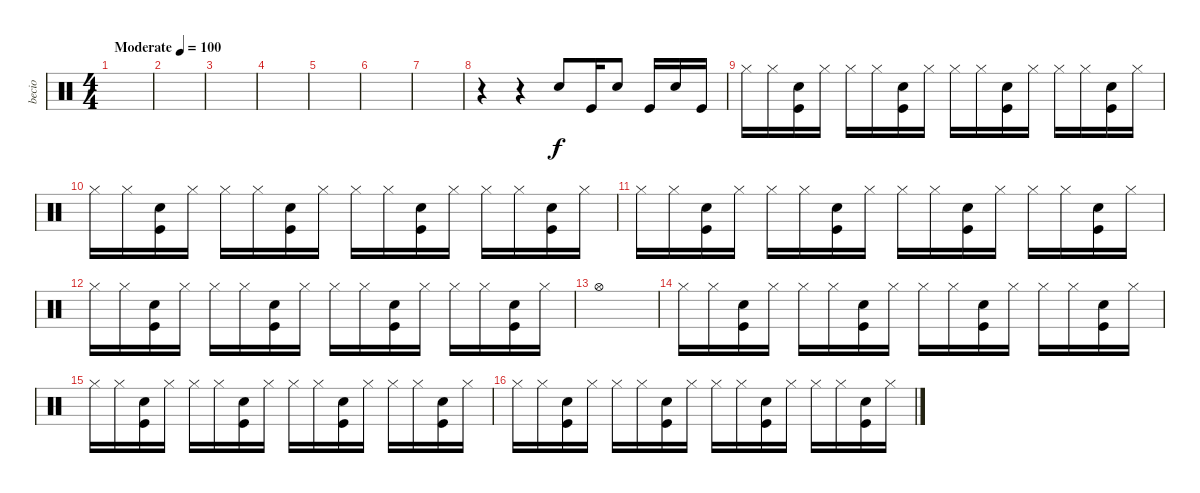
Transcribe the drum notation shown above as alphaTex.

\track ("becio" "becio") {instrument percussion}
\staff {score}
\articulation defaults
\ts (4 4)
\tempo (100 "Moderate")
\clef neutral
\ks c
|
|
|
|
|
|
|
r.4 r.4 "Electric Snare (hit)".8 "Kick (hit)".16 "Electric Snare (hit)".8 "Kick (hit)".16 "Electric Snare (hit)".16 "Kick (hit)".16 |
"Hi-Hat (closed)".16 "Hi-Hat (closed)".16 ("Electric Snare (hit)" "Kick (hit)").16 "Hi-Hat (closed)".16 "Hi-Hat (closed)".16 "Hi-Hat (closed)".16 ("Electric Snare (hit)" "Kick (hit)").16 "Hi-Hat (closed)".16 "Hi-Hat (closed)".16 "Hi-Hat (closed)".16 ("Electric Snare (hit)" "Kick (hit)").16 "Hi-Hat (closed)".16 "Hi-Hat (closed)".16 "Hi-Hat (closed)".16 ("Electric Snare (hit)" "Kick (hit)").16 "Hi-Hat (closed)".16 |
"Hi-Hat (closed)".16 "Hi-Hat (closed)".16 ("Electric Snare (hit)" "Kick (hit)").16 "Hi-Hat (closed)".16 "Hi-Hat (closed)".16 "Hi-Hat (closed)".16 ("Electric Snare (hit)" "Kick (hit)").16 "Hi-Hat (closed)".16 "Hi-Hat (closed)".16 "Hi-Hat (closed)".16 ("Electric Snare (hit)" "Kick (hit)").16 "Hi-Hat (closed)".16 "Hi-Hat (closed)".16 "Hi-Hat (closed)".16 ("Electric Snare (hit)" "Kick (hit)").16 "Hi-Hat (closed)".16 |
"Hi-Hat (closed)".16 "Hi-Hat (closed)".16 ("Electric Snare (hit)" "Kick (hit)").16 "Hi-Hat (closed)".16 "Hi-Hat (closed)".16 "Hi-Hat (closed)".16 ("Electric Snare (hit)" "Kick (hit)").16 "Hi-Hat (closed)".16 "Hi-Hat (closed)".16 "Hi-Hat (closed)".16 ("Electric Snare (hit)" "Kick (hit)").16 "Hi-Hat (closed)".16 "Hi-Hat (closed)".16 "Hi-Hat (closed)".16 ("Electric Snare (hit)" "Kick (hit)").16 "Hi-Hat (closed)".16 |
"Hi-Hat (closed)".16 "Hi-Hat (closed)".16 ("Electric Snare (hit)" "Kick (hit)").16 "Hi-Hat (closed)".16 "Hi-Hat (closed)".16 "Hi-Hat (closed)".16 ("Electric Snare (hit)" "Kick (hit)").16 "Hi-Hat (closed)".16 "Hi-Hat (closed)".16 "Hi-Hat (closed)".16 ("Electric Snare (hit)" "Kick (hit)").16 "Hi-Hat (closed)".16 "Hi-Hat (closed)".16 "Hi-Hat (closed)".16 ("Electric Snare (hit)" "Kick (hit)").16 "Hi-Hat (closed)".16 |
"Hi-Hat (open)".1 |
"Hi-Hat (closed)".16 "Hi-Hat (closed)".16 ("Electric Snare (hit)" "Kick (hit)").16 "Hi-Hat (closed)".16 "Hi-Hat (closed)".16 "Hi-Hat (closed)".16 ("Electric Snare (hit)" "Kick (hit)").16 "Hi-Hat (closed)".16 "Hi-Hat (closed)".16 "Hi-Hat (closed)".16 ("Electric Snare (hit)" "Kick (hit)").16 "Hi-Hat (closed)".16 "Hi-Hat (closed)".16 "Hi-Hat (closed)".16 ("Electric Snare (hit)" "Kick (hit)").16 "Hi-Hat (closed)".16 |
"Hi-Hat (closed)".16 "Hi-Hat (closed)".16 ("Electric Snare (hit)" "Kick (hit)").16 "Hi-Hat (closed)".16 "Hi-Hat (closed)".16 "Hi-Hat (closed)".16 ("Electric Snare (hit)" "Kick (hit)").16 "Hi-Hat (closed)".16 "Hi-Hat (closed)".16 "Hi-Hat (closed)".16 ("Electric Snare (hit)" "Kick (hit)").16 "Hi-Hat (closed)".16 "Hi-Hat (closed)".16 "Hi-Hat (closed)".16 ("Electric Snare (hit)" "Kick (hit)").16 "Hi-Hat (closed)".16 |
"Hi-Hat (closed)".16 "Hi-Hat (closed)".16 ("Electric Snare (hit)" "Kick (hit)").16 "Hi-Hat (closed)".16 "Hi-Hat (closed)".16 "Hi-Hat (closed)".16 ("Electric Snare (hit)" "Kick (hit)").16 "Hi-Hat (closed)".16 "Hi-Hat (closed)".16 "Hi-Hat (closed)".16 ("Electric Snare (hit)" "Kick (hit)").16 "Hi-Hat (closed)".16 "Hi-Hat (closed)".16 "Hi-Hat (closed)".16 ("Electric Snare (hit)" "Kick (hit)").16 "Hi-Hat (closed)".16
